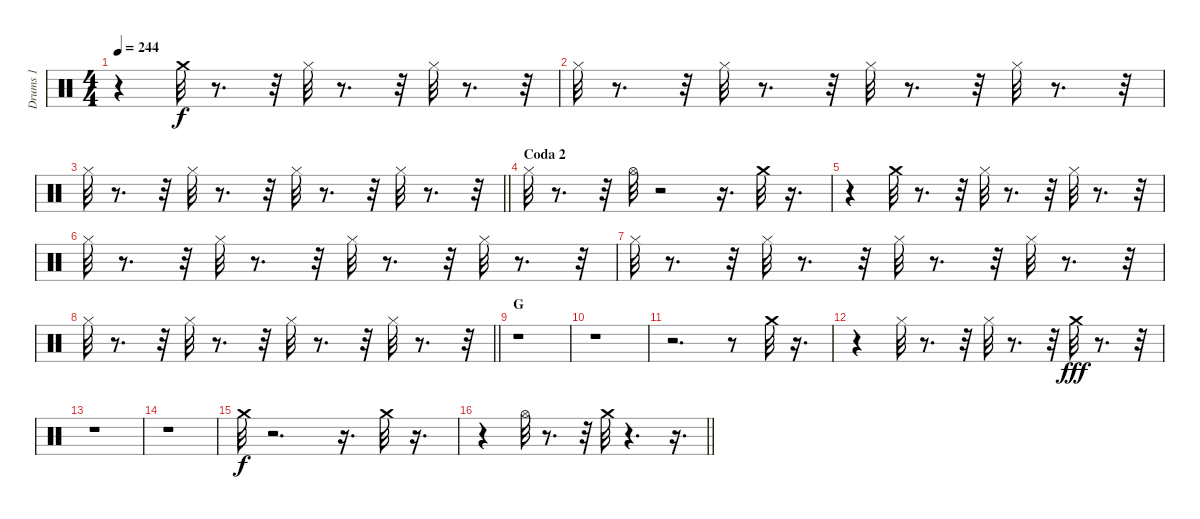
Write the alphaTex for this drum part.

\track ("Drums 1" "Drums 1") {instrument percussion}
\staff {score}
\articulation defaults
\ts (4 4)
\tempo 244
\clef neutral
\ks c
r.4{dy f} "Crash medium (hit)".32 r.8{d} r.32 "Hi-Hat (closed)".32 r.8{d} r.32 "Hi-Hat (closed)".32 r.8{d} r.32 |
"Hi-Hat (closed)".32 r.8{d} r.32 "Hi-Hat (closed)".32 r.8{d} r.32 "Hi-Hat (closed)".32 r.8{d} r.32 "Hi-Hat (closed)".32 r.8{d} r.32 |
\barLineRight lightlight "Hi-Hat (closed)".32
r.8{d} r.32 "Hi-Hat (closed)".32 r.8{d} r.32 "Hi-Hat (closed)".32 r.8{d} r.32 "Hi-Hat (closed)".32 r.8{d} r.32 |
\section ("" "Coda 2")
"Hi-Hat (closed)".32 r.8{d} r.32 "Hi-Hat (open)".32 r.2 r.16{d} "Crash medium (hit)".32 r.16{d} |
r.4 "Crash medium (hit)".32 r.8{d} r.32 "Hi-Hat (closed)".32 r.8{d} r.32 "Hi-Hat (closed)".32 r.8{d} r.32 |
"Hi-Hat (closed)".32 r.8{d} r.32 "Hi-Hat (closed)".32 r.8{d} r.32 "Hi-Hat (closed)".32 r.8{d} r.32 "Hi-Hat (closed)".32 r.8{d} r.32 |
"Hi-Hat (closed)".32 r.8{d} r.32 "Hi-Hat (closed)".32 r.8{d} r.32 "Hi-Hat (closed)".32 r.8{d} r.32 "Hi-Hat (closed)".32 r.8{d} r.32 |
\barLineRight lightlight "Hi-Hat (closed)".32
r.8{d} r.32 "Hi-Hat (closed)".32 r.8{d} r.32 "Hi-Hat (closed)".32 r.8{d} r.32 "Hi-Hat (closed)".32 r.8{d} r.32 |
\section ("" "G")
r.1 |
r.1 |
r.2{d} r.8 "Crash medium (hit)".32 r.16{d} |
r.4 "Hi-Hat (closed)".32 r.8{d} r.32 "Hi-Hat (closed)".32 r.8{d} r.32 "Crash medium (hit)".32{dy fff} r.8{d} r.32 |
r.1 |
r.1 |
"Crash medium (hit)".32{dy f} r.2{d} r.16{d} "Crash medium (hit)".32 r.16{d} |
\barLineRight lightlight
r.4 "Hi-Hat (open)".32 r.8{d} r.32 "Crash medium (hit)".32 r.4{d} r.16{d}
